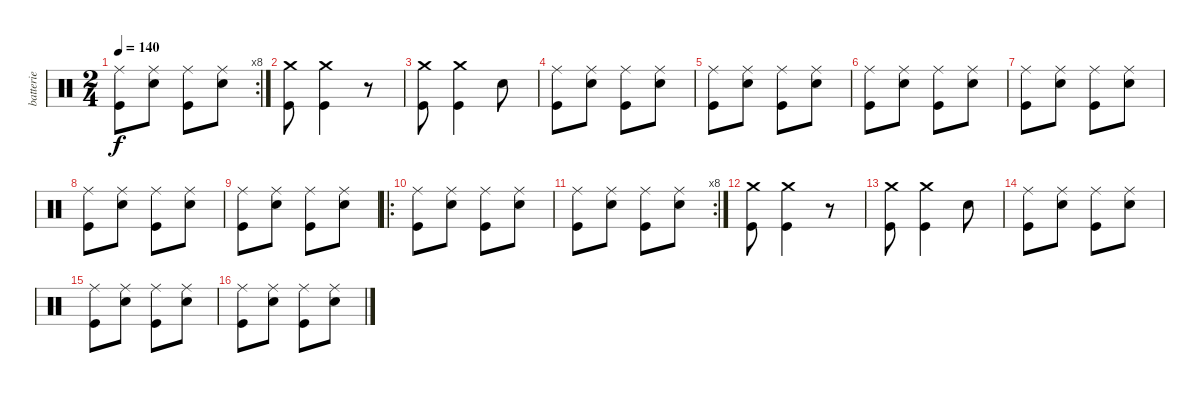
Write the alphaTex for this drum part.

\track ("batterie " "batterie ") {instrument percussion}
\staff {score}
\articulation defaults
\rc 8
\ts (2 4)
\tempo 140
\clef neutral
\ks c
("Ride (middle)" "Kick (hit)").8{dy f} ("Ride (middle)" "Snare (hit) 2").8 ("Ride (middle)" "Kick (hit)").8 ("Ride (middle)" "Snare (hit) 2").8 |
("Crash medium (hit)" "Kick (hit)").8 ("Crash medium (hit)" "Kick (hit)").4 r.8 |
("Crash medium (hit)" "Kick (hit)").8 ("Crash medium (hit)" "Kick (hit)").4 "Snare (hit) 2".8 |
("Ride (middle)" "Kick (hit)").8 ("Ride (middle)" "Snare (hit) 2").8 ("Ride (middle)" "Kick (hit)").8 ("Ride (middle)" "Snare (hit) 2").8 |
("Ride (middle)" "Kick (hit)").8 ("Ride (middle)" "Snare (hit) 2").8 ("Ride (middle)" "Kick (hit)").8 ("Ride (middle)" "Snare (hit) 2").8 |
("Ride (middle)" "Kick (hit)").8 ("Ride (middle)" "Snare (hit) 2").8 ("Ride (middle)" "Kick (hit)").8 ("Ride (middle)" "Snare (hit) 2").8 |
("Ride (middle)" "Kick (hit)").8 ("Ride (middle)" "Snare (hit) 2").8 ("Ride (middle)" "Kick (hit)").8 ("Ride (middle)" "Snare (hit) 2").8 |
("Ride (middle)" "Kick (hit)").8 ("Ride (middle)" "Snare (hit) 2").8 ("Ride (middle)" "Kick (hit)").8 ("Ride (middle)" "Snare (hit) 2").8 |
("Ride (middle)" "Kick (hit)").8 ("Ride (middle)" "Snare (hit) 2").8 ("Ride (middle)" "Kick (hit)").8 ("Ride (middle)" "Snare (hit) 2").8 |
\ro
("Ride (middle)" "Kick (hit)").8 ("Ride (middle)" "Snare (hit) 2").8 ("Ride (middle)" "Kick (hit)").8 ("Ride (middle)" "Snare (hit) 2").8 |
\rc 8
("Ride (middle)" "Kick (hit)").8 ("Ride (middle)" "Snare (hit) 2").8 ("Ride (middle)" "Kick (hit)").8 ("Ride (middle)" "Snare (hit) 2").8 |
("Crash medium (hit)" "Kick (hit)").8 ("Crash medium (hit)" "Kick (hit)").4 r.8 |
("Crash medium (hit)" "Kick (hit)").8 ("Crash medium (hit)" "Kick (hit)").4 "Snare (hit) 2".8 |
("Ride (middle)" "Kick (hit)").8 ("Ride (middle)" "Snare (hit) 2").8 ("Ride (middle)" "Kick (hit)").8 ("Ride (middle)" "Snare (hit) 2").8 |
("Ride (middle)" "Kick (hit)").8 ("Ride (middle)" "Snare (hit) 2").8 ("Ride (middle)" "Kick (hit)").8 ("Ride (middle)" "Snare (hit) 2").8 |
("Ride (middle)" "Kick (hit)").8 ("Ride (middle)" "Snare (hit) 2").8 ("Ride (middle)" "Kick (hit)").8 ("Ride (middle)" "Snare (hit) 2").8
